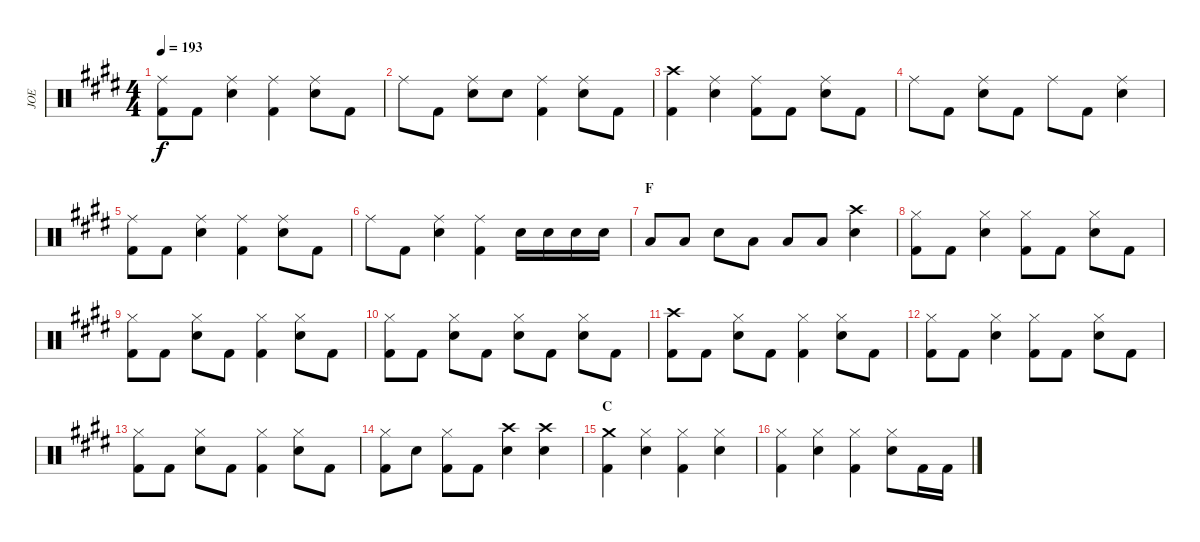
\track ("JOE" "JOE") {instrument percussion}
\staff {score}
\articulation defaults
\ts (4 4)
\tempo 193
\clef neutral
\ks c#minor
("Ride (middle)" "Kick (hit) 2").8{dy f} "Kick (hit) 2".8 ("Ride (middle)" "Snare (hit) 2").4 ("Ride (middle)" "Kick (hit) 2").4 ("Ride (middle)" "Snare (hit) 2").8 "Kick (hit) 2".8 |
"Ride (middle)".8 "Kick (hit) 2".8 ("Ride (middle)" "Snare (hit) 2").8 "Snare (hit) 2".8 ("Ride (middle)" "Kick (hit) 2").4 ("Ride (middle)" "Snare (hit) 2").8 "Kick (hit) 2".8 |
("Crash high (hit)" "Kick (hit) 2").4 ("Ride (middle)" "Snare (hit) 2").4 ("Ride (middle)" "Kick (hit) 2").8 "Kick (hit) 2".8 ("Ride (middle)" "Snare (hit) 2").8 "Kick (hit) 2".8 |
"Ride (middle)".8 "Kick (hit) 2".8 ("Ride (middle)" "Snare (hit) 2").8 "Kick (hit) 2".8 "Ride (middle)".8 "Kick (hit) 2".8 ("Ride (middle)" "Snare (hit) 2").4 |
("Ride (middle)" "Kick (hit) 2").8 "Kick (hit) 2".8 ("Ride (middle)" "Snare (hit) 2").4 ("Ride (middle)" "Kick (hit) 2").4 ("Ride (middle)" "Snare (hit) 2").8 "Kick (hit) 2".8 |
"Ride (middle)".8 "Kick (hit) 2".8 ("Ride (middle)" "Snare (hit) 2").4 ("Ride (middle)" "Kick (hit) 2").4 "Snare (hit) 2".16 "Snare (hit) 2".16 "Snare (hit) 2".16 "Snare (hit) 2".16 |
\section ("" "F")
"Low Floor Tom (hit)".8 "Low Floor Tom (hit)".8 "Snare (hit) 2".8 "Low Floor Tom (hit)".8 "Low Floor Tom (hit)".8 "Low Floor Tom (hit)".8 ("Crash high (hit)" "Snare (hit) 2").4 |
("Hi-Hat (closed)" "Kick (hit) 2").8 "Kick (hit) 2".8 ("Hi-Hat (closed)" "Snare (hit) 2").4 ("Hi-Hat (closed)" "Kick (hit) 2").8 "Kick (hit) 2".8 ("Hi-Hat (closed)" "Snare (hit) 2").8 "Kick (hit) 2".8 |
("Hi-Hat (closed)" "Kick (hit) 2").8 "Kick (hit) 2".8 ("Hi-Hat (closed)" "Snare (hit) 2").8 "Kick (hit) 2".8 ("Hi-Hat (closed)" "Kick (hit) 2").4 ("Hi-Hat (closed)" "Snare (hit) 2").8 "Kick (hit) 2".8 |
("Hi-Hat (closed)" "Kick (hit) 2").8 "Kick (hit) 2".8 ("Hi-Hat (closed)" "Snare (hit) 2").8 "Kick (hit) 2".8 ("Hi-Hat (closed)" "Snare (hit) 2").8 "Kick (hit) 2".8 ("Hi-Hat (closed)" "Snare (hit) 2").8 "Kick (hit) 2".8 |
("Crash high (hit)" "Kick (hit) 2").8 "Kick (hit) 2".8 ("Hi-Hat (closed)" "Snare (hit) 2").8 "Kick (hit) 2".8 ("Hi-Hat (closed)" "Kick (hit) 2").4 ("Hi-Hat (closed)" "Snare (hit) 2").8 "Kick (hit) 2".8 |
("Hi-Hat (closed)" "Kick (hit) 2").8 "Kick (hit) 2".8 ("Hi-Hat (closed)" "Snare (hit) 2").4 ("Hi-Hat (closed)" "Kick (hit) 2").8 "Kick (hit) 2".8 ("Hi-Hat (closed)" "Snare (hit) 2").8 "Kick (hit) 2".8 |
("Hi-Hat (closed)" "Kick (hit) 2").8 "Kick (hit) 2".8 ("Hi-Hat (closed)" "Snare (hit) 2").8 "Kick (hit) 2".8 ("Hi-Hat (closed)" "Kick (hit) 2").4 ("Hi-Hat (closed)" "Snare (hit) 2").8 "Kick (hit) 2".8 |
("Hi-Hat (closed)" "Kick (hit) 2").8 "Snare (hit) 2".8 ("Hi-Hat (closed)" "Kick (hit) 2").8 "Kick (hit) 2".8 ("Crash high (hit)" "Snare (hit) 2").4 ("Crash high (hit)" "Snare (hit) 2").4 |
\section ("" "C")
("Crash medium (hit)" "Kick (hit) 2").4 ("Hi-Hat (closed)" "Snare (hit) 2").4 ("Hi-Hat (closed)" "Kick (hit) 2").4 ("Hi-Hat (closed)" "Snare (hit) 2").4 |
("Hi-Hat (closed)" "Kick (hit) 2").4 ("Hi-Hat (closed)" "Snare (hit) 2").4 ("Hi-Hat (closed)" "Kick (hit) 2").4 ("Hi-Hat (closed)" "Snare (hit) 2").8 "Kick (hit) 2".16 "Kick (hit) 2".16
